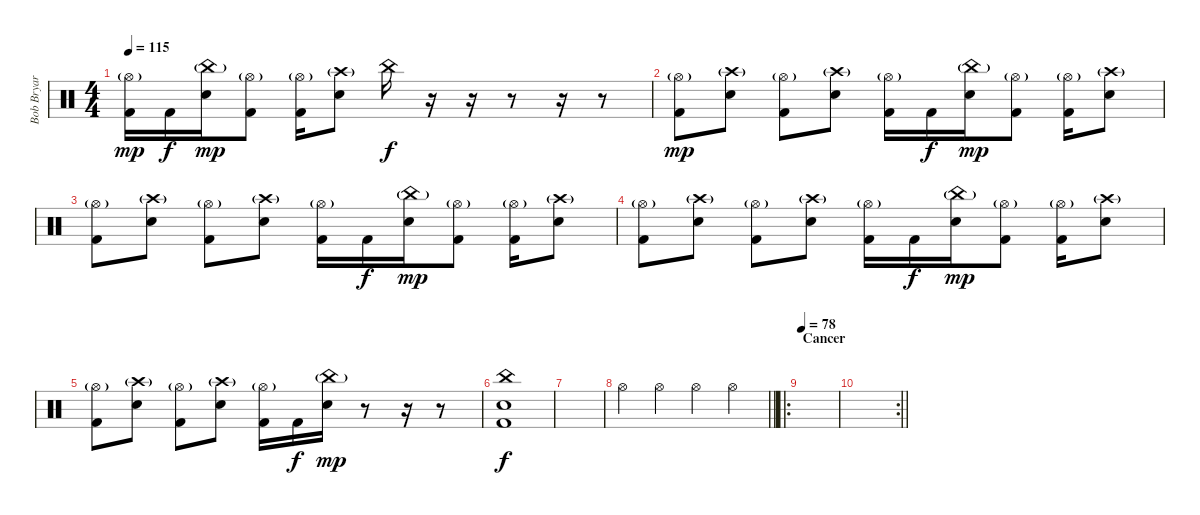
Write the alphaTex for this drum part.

\track ("Bob Bryar [Drums]" "Bob Bryar ") {instrument percussion}
\staff {score}
\articulation defaults
\ts (4 4)
\tempo 115
\clef neutral
\ks c
("Hi-Hat (open)"{g} "Kick (hit) 2").16{dy mp} "Kick (hit) 2".16{dy f} ("China (hit)"{g} "Electric Snare (hit)").16{dy mp} ("Hi-Hat (open)"{g} "Kick (hit) 2").8 ("Hi-Hat (open)"{g} "Kick (hit) 2").16 ("Crash high (hit)"{g} "Electric Snare (hit)").8 "China (hit)".16{dy f} r.16 r.16 r.8 r.16 r.8 |
("Hi-Hat (open)"{g} "Kick (hit) 2").8{dy mp} ("Crash high (hit)"{g} "Electric Snare (hit)").8 ("Hi-Hat (open)"{g} "Kick (hit) 2").8 ("Crash high (hit)"{g} "Electric Snare (hit)").8 ("Hi-Hat (open)"{g} "Kick (hit) 2").16 "Kick (hit) 2".16{dy f} ("China (hit)"{g} "Electric Snare (hit)").16{dy mp} ("Hi-Hat (open)"{g} "Kick (hit) 2").8 ("Hi-Hat (open)"{g} "Kick (hit) 2").16 ("Crash high (hit)"{g} "Electric Snare (hit)").8 |
("Hi-Hat (open)"{g} "Kick (hit) 2").8 ("Crash high (hit)"{g} "Electric Snare (hit)").8 ("Hi-Hat (open)"{g} "Kick (hit) 2").8 ("Crash high (hit)"{g} "Electric Snare (hit)").8 ("Hi-Hat (open)"{g} "Kick (hit) 2").16 "Kick (hit) 2".16{dy f} ("China (hit)"{g} "Electric Snare (hit)").16{dy mp} ("Hi-Hat (open)"{g} "Kick (hit) 2").8 ("Hi-Hat (open)"{g} "Kick (hit) 2").16 ("Crash high (hit)"{g} "Electric Snare (hit)").8 |
("Hi-Hat (open)"{g} "Kick (hit) 2").8 ("Crash high (hit)"{g} "Electric Snare (hit)").8 ("Hi-Hat (open)"{g} "Kick (hit) 2").8 ("Crash high (hit)"{g} "Electric Snare (hit)").8 ("Hi-Hat (open)"{g} "Kick (hit) 2").16 "Kick (hit) 2".16{dy f} ("China (hit)"{g} "Electric Snare (hit)").16{dy mp} ("Hi-Hat (open)"{g} "Kick (hit) 2").8 ("Hi-Hat (open)"{g} "Kick (hit) 2").16 ("Crash high (hit)"{g} "Electric Snare (hit)").8 |
("Hi-Hat (open)"{g} "Kick (hit) 2").8 ("Crash high (hit)"{g} "Electric Snare (hit)").8 ("Hi-Hat (open)"{g} "Kick (hit) 2").8 ("Crash high (hit)"{g} "Electric Snare (hit)").8 ("Hi-Hat (open)"{g} "Kick (hit) 2").16 "Kick (hit) 2".16{dy f} ("China (hit)"{g} "Electric Snare (hit)").16{dy mp} r.8 r.16 r.8 |
("China (hit)" "Electric Snare (hit)" "Kick (hit) 2").1{dy f} |
|
\barLineRight lightlight "Hi-Hat (open)".4 "Hi-Hat (open)".4 "Hi-Hat (open)".4 "Hi-Hat (open)".4
|
\ro
\section ("" "Cancer")
\tempo 78
|
\rc 2
\barLineRight lightlight
